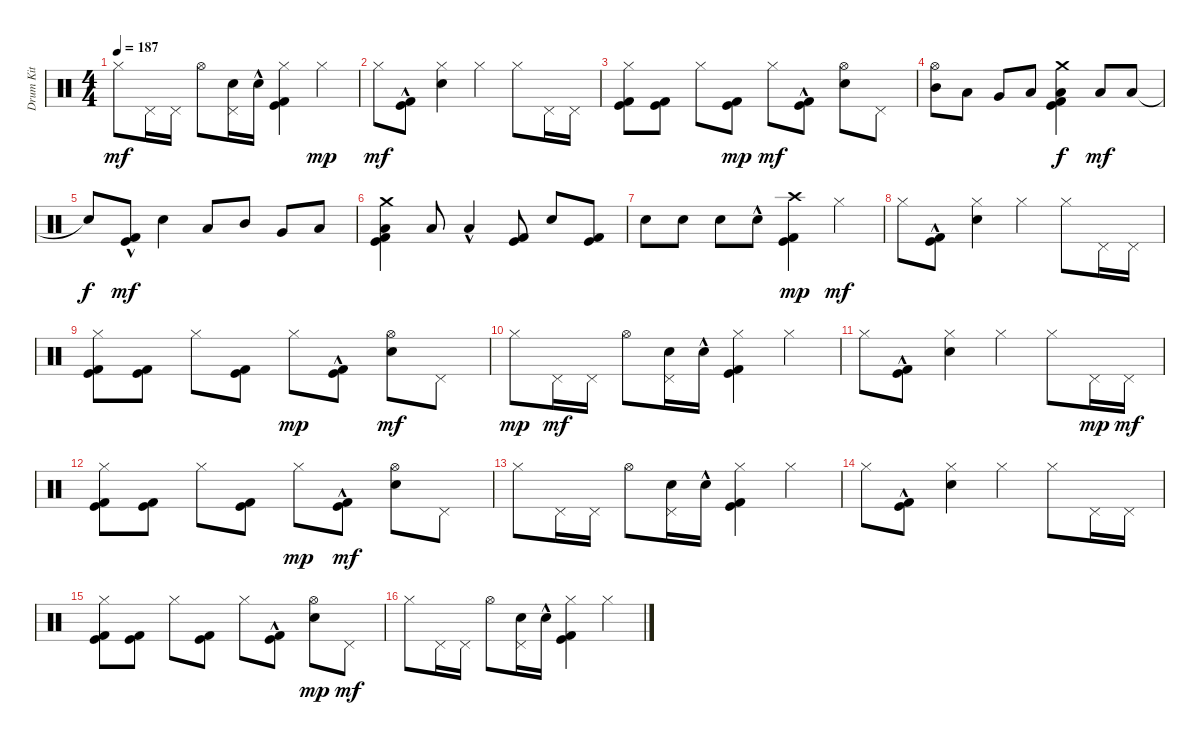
\track ("Drum Kit" "Drum Kit") {instrument percussion}
\staff {score}
\articulation defaults
\ts (4 4)
\tempo 187
\clef neutral
\ks c "Hi-Hat (closed)".8{dy mf} "Pedal Hi-Hat (hit)".16 "Pedal Hi-Hat (hit)".16 "Hi-Hat (open)".8
("Pedal Hi-Hat (hit)" "Electric Snare (hit)").16 "Electric Snare (hit)"{hac}.16 ("Kick (hit) 2" "Kick (hit)" "Hi-Hat (closed)").4 "Hi-Hat (closed)".4{dy mp} |
"Hi-Hat (closed)".8{dy mf} ("Kick (hit) 2"{hac} "Kick (hit)"{hac}).8 ("Electric Snare (hit)" "Hi-Hat (closed)").4 "Hi-Hat (closed)".4 "Hi-Hat (closed)".8 "Pedal Hi-Hat (hit)".16 "Pedal Hi-Hat (hit)".16 |
("Kick (hit) 2" "Kick (hit)" "Hi-Hat (closed)").8 ("Kick (hit) 2" "Kick (hit)").8 "Hi-Hat (closed)".8 ("Kick (hit) 2" "Kick (hit)").8{dy mp} "Hi-Hat (closed)".8{dy mf} ("Kick (hit) 2"{hac} "Kick (hit)"{hac}).8 ("Electric Snare (hit)" "Hi-Hat (open)").8 "Pedal Hi-Hat (hit)".8 |
("Mid Tom (hit)" "Hi-Hat (open)").8 "Low Tom (hit)".8 "Very Low Tom (hit)".8 "Low Floor Tom (hit)".8 ("Kick (hit) 2" "Kick (hit)" "Low Floor Tom (hit)" "Crash medium (hit)").4{dy f} "Low Floor Tom (hit)".8{dy mf} "Low Tom (hit)".8 |
"Snare (hit)"{t}.8{dy f} ("Kick (hit) 2"{hac} "Kick (hit)"{hac}).8{dy mf} "Electric Snare (hit)".4 "Low Tom (hit)".8 "Mid Tom (hit)".8 "Very Low Tom (hit)".8 "Low Floor Tom (hit)".8 |
("Kick (hit) 2" "Kick (hit)" "Low Floor Tom (hit)" "Crash medium (hit)").4 "Low Floor Tom (hit)".8 "Low Tom (hit)"{hac}.4 ("Kick (hit) 2" "Kick (hit)").8 "Electric Snare (hit)".8 ("Kick (hit) 2" "Kick (hit)").8 |
"Electric Snare (hit)".8 "Electric Snare (hit)".8 "Electric Snare (hit)".8 "Electric Snare (hit)"{hac}.8 ("Kick (hit) 2" "Kick (hit)" "Crash high (hit)").4{dy mp} "Hi-Hat (closed)".4{dy mf} |
"Hi-Hat (closed)".8 ("Kick (hit) 2"{hac} "Kick (hit)"{hac}).8 ("Electric Snare (hit)" "Hi-Hat (closed)").4 "Hi-Hat (closed)".4 "Hi-Hat (closed)".8 "Pedal Hi-Hat (hit)".16 "Pedal Hi-Hat (hit)".16 |
("Kick (hit) 2" "Kick (hit)" "Hi-Hat (closed)").8 ("Kick (hit) 2" "Kick (hit)").8 "Hi-Hat (closed)".8 ("Kick (hit) 2" "Kick (hit)").8 "Hi-Hat (closed)".8{dy mp} ("Kick (hit) 2"{hac} "Kick (hit)"{hac}).8 ("Electric Snare (hit)" "Hi-Hat (open)").8{dy mf} "Pedal Hi-Hat (hit)".8 |
"Hi-Hat (closed)".8{dy mp} "Pedal Hi-Hat (hit)".16{dy mf} "Pedal Hi-Hat (hit)".16 "Hi-Hat (open)".8 ("Pedal Hi-Hat (hit)" "Electric Snare (hit)").16 "Electric Snare (hit)"{hac}.16 ("Kick (hit) 2" "Kick (hit)" "Hi-Hat (closed)").4 "Hi-Hat (closed)".4 |
"Hi-Hat (closed)".8 ("Kick (hit) 2"{hac} "Kick (hit)"{hac}).8 ("Electric Snare (hit)" "Hi-Hat (closed)").4 "Hi-Hat (closed)".4 "Hi-Hat (closed)".8 "Pedal Hi-Hat (hit)".16{dy mp} "Pedal Hi-Hat (hit)".16{dy mf} |
("Kick (hit) 2" "Kick (hit)" "Hi-Hat (closed)").8 ("Kick (hit) 2" "Kick (hit)").8 "Hi-Hat (closed)".8 ("Kick (hit) 2" "Kick (hit)").8 "Hi-Hat (closed)".8{dy mp} ("Kick (hit) 2"{hac} "Kick (hit)"{hac}).8{dy mf} ("Electric Snare (hit)" "Hi-Hat (open)").8 "Pedal Hi-Hat (hit)".8 |
"Hi-Hat (closed)".8 "Pedal Hi-Hat (hit)".16 "Pedal Hi-Hat (hit)".16 "Hi-Hat (open)".8 ("Pedal Hi-Hat (hit)" "Electric Snare (hit)").16 "Electric Snare (hit)"{hac}.16 ("Kick (hit) 2" "Kick (hit)" "Hi-Hat (closed)").4 "Hi-Hat (closed)".4 |
"Hi-Hat (closed)".8 ("Kick (hit) 2"{hac} "Kick (hit)"{hac}).8 ("Electric Snare (hit)" "Hi-Hat (closed)").4 "Hi-Hat (closed)".4 "Hi-Hat (closed)".8 "Pedal Hi-Hat (hit)".16 "Pedal Hi-Hat (hit)".16 |
("Kick (hit) 2" "Kick (hit)" "Hi-Hat (closed)").8 ("Kick (hit) 2" "Kick (hit)").8 "Hi-Hat (closed)".8 ("Kick (hit) 2" "Kick (hit)").8 "Hi-Hat (closed)".8 ("Kick (hit) 2"{hac} "Kick (hit)"{hac}).8 ("Electric Snare (hit)" "Hi-Hat (open)").8{dy mp} "Pedal Hi-Hat (hit)".8{dy mf} |
"Hi-Hat (closed)".8 "Pedal Hi-Hat (hit)".16 "Pedal Hi-Hat (hit)".16 "Hi-Hat (open)".8 ("Pedal Hi-Hat (hit)" "Electric Snare (hit)").16 "Electric Snare (hit)"{hac}.16 ("Kick (hit) 2" "Kick (hit)" "Hi-Hat (closed)").4 "Hi-Hat (closed)".4
